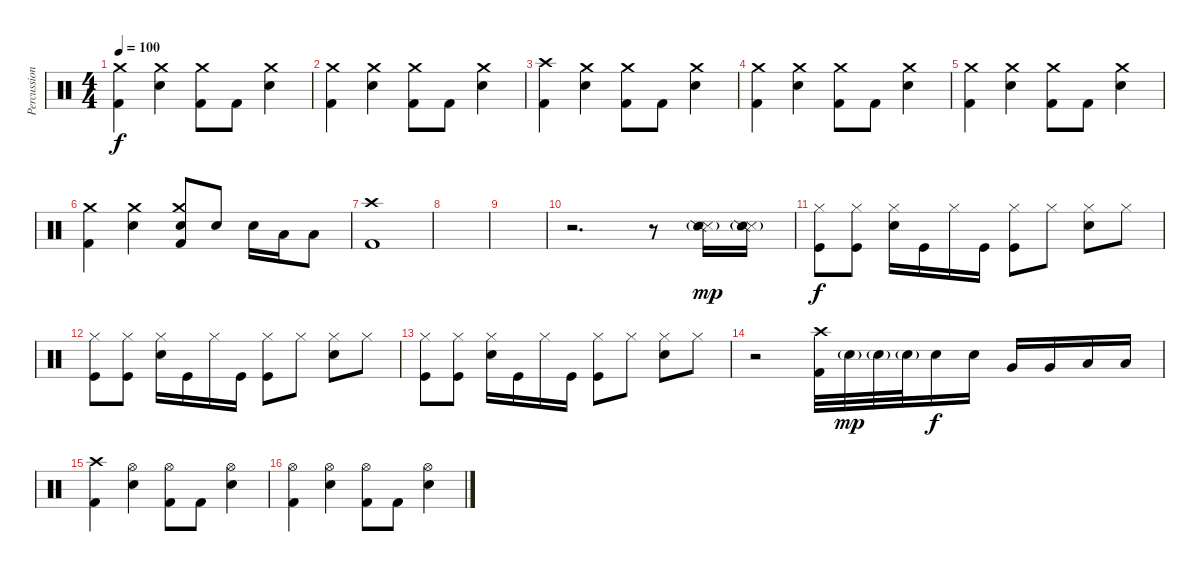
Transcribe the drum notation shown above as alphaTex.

\track ("Percussion" "Percussion") {instrument percussion}
\staff {score}
\articulation defaults
\ts (4 4)
\tempo 100
\clef neutral
\ks c
("Kick (hit) 2" "Crash medium (hit)").4{dy f} ("Electric Snare (hit)" "Crash medium (hit)").4 ("Kick (hit) 2" "Crash medium (hit)").8 "Kick (hit) 2".8 ("Electric Snare (hit)" "Crash medium (hit)").4 |
("Kick (hit) 2" "Crash medium (hit)").4 ("Electric Snare (hit)" "Crash medium (hit)").4 ("Kick (hit) 2" "Crash medium (hit)").8 "Kick (hit) 2".8 ("Electric Snare (hit)" "Crash medium (hit)").4 |
("Kick (hit) 2" "Crash high (hit)").4 ("Electric Snare (hit)" "Crash medium (hit)").4 ("Kick (hit) 2" "Crash medium (hit)").8 "Kick (hit) 2".8 ("Electric Snare (hit)" "Crash medium (hit)").4 |
("Kick (hit) 2" "Crash medium (hit)").4 ("Electric Snare (hit)" "Crash medium (hit)").4 ("Kick (hit) 2" "Crash medium (hit)").8 "Kick (hit) 2".8 ("Electric Snare (hit)" "Crash medium (hit)").4 |
("Kick (hit) 2" "Crash medium (hit)").4 ("Electric Snare (hit)" "Crash medium (hit)").4 ("Kick (hit) 2" "Crash medium (hit)").8 "Kick (hit) 2".8 ("Electric Snare (hit)" "Crash medium (hit)").4 |
("Kick (hit) 2" "Crash medium (hit)").4 ("Electric Snare (hit)" "Crash medium (hit)").4 ("Kick (hit) 2" "Electric Snare (hit)" "Crash medium (hit)").8 "Electric Snare (hit)".8 "Electric Snare (hit)".16 "Low Floor Tom (hit)".16 "Low Floor Tom (hit)".8 |
("Kick (hit) 2" "Crash high (hit)").1 |
|
|
r.2{d} r.8 ("Metronome (hit)"{g} "Snare (side stick) 2"{g}).16{dy mp} ("Metronome (hit)"{g} "Snare (side stick) 2"{g}).16 |
("Kick (hit)" "Hi-Hat (closed)").8{dy f} ("Kick (hit)" "Hi-Hat (closed)").8 ("Electric Snare (hit)" "Hi-Hat (closed)").16 "Kick (hit)".16 "Hi-Hat (closed)".16 "Kick (hit)".16 ("Kick (hit)" "Hi-Hat (closed)").8 "Hi-Hat (closed)".8 ("Electric Snare (hit)" "Hi-Hat (closed)").8 "Hi-Hat (closed)".8 |
("Kick (hit)" "Hi-Hat (closed)").8 ("Kick (hit)" "Hi-Hat (closed)").8 ("Electric Snare (hit)" "Hi-Hat (closed)").16 "Kick (hit)".16 "Hi-Hat (closed)".16 "Kick (hit)".16 ("Kick (hit)" "Hi-Hat (closed)").8 "Hi-Hat (closed)".8 ("Electric Snare (hit)" "Hi-Hat (closed)").8 "Hi-Hat (closed)".8 |
("Kick (hit)" "Hi-Hat (closed)").8 ("Kick (hit)" "Hi-Hat (closed)").8 ("Electric Snare (hit)" "Hi-Hat (closed)").16 "Kick (hit)".16 "Hi-Hat (closed)".16 "Kick (hit)".16 ("Kick (hit)" "Hi-Hat (closed)").8 "Hi-Hat (closed)".8 ("Electric Snare (hit)" "Hi-Hat (closed)").8 "Hi-Hat (closed)".8 |
r.2 ("Kick (hit) 2" "Crash high (hit)").32 "Electric Snare (hit)"{g}.32{dy mp} "Electric Snare (hit)"{g}.32 "Electric Snare (hit)"{g}.32 "Electric Snare (hit)".16{dy f} "Electric Snare (hit)".16 "Very Low Tom (hit)".16 "Very Low Tom (hit)".16 "Low Floor Tom (hit)".16 "Low Floor Tom (hit)".16 |
("Kick (hit) 2" "Crash high (hit)").4 ("Electric Snare (hit)" "Hi-Hat (open)").4 ("Kick (hit) 2" "Hi-Hat (open)").8 "Kick (hit) 2".8 ("Electric Snare (hit)" "Hi-Hat (open)").4 |
("Kick (hit) 2" "Hi-Hat (open)").4 ("Electric Snare (hit)" "Hi-Hat (open)").4 ("Kick (hit) 2" "Hi-Hat (open)").8 "Kick (hit) 2".8 ("Electric Snare (hit)" "Hi-Hat (open)").4
